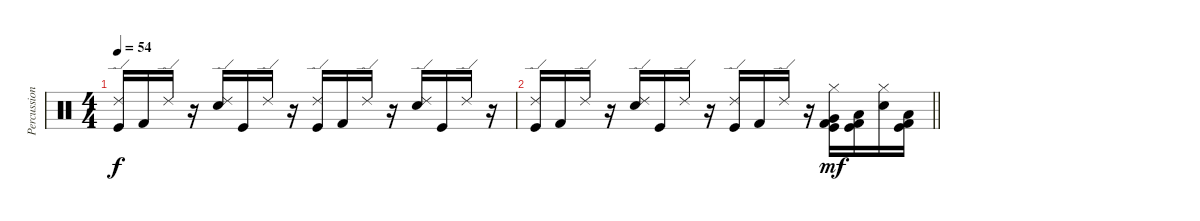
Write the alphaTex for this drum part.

\track ("Percussion" "Percussion") {instrument percussion}
\staff {score}
\articulation defaults
\ts (4 4)
\tempo 54
\clef neutral
\ks c
("Ride (edge) 2" "Kick (hit)").16{dy f} "Kick (hit) 2".16 "Ride (edge) 2".16 r.16 ("Ride (edge) 2" "Snare (hit) 2").16 "Kick (hit)".16 "Ride (edge) 2".16 r.16 ("Ride (edge) 2" "Kick (hit)").16 "Kick (hit) 2".16 "Ride (edge) 2".16 r.16 ("Ride (edge) 2" "Snare (hit) 2").16 "Kick (hit)".16 "Ride (edge) 2".16 r.16 |
\barLineRight lightlight
("Ride (edge) 2" "Kick (hit)").16 "Kick (hit) 2".16 "Ride (edge) 2".16 r.16 ("Ride (edge) 2" "Snare (hit) 2").16 "Kick (hit)".16 "Ride (edge) 2".16 r.16 ("Ride (edge) 2" "Kick (hit)").16 "Kick (hit) 2".16 "Ride (edge) 2".16 r.16 ("Hi-Hat (closed)" "Very Low Tom (hit)" "Kick (hit)" "Kick (hit) 2").16{dy mf} ("Low Tom (hit)" "Kick (hit)" "Kick (hit) 2").16 ("Hi-Hat (closed)" "Electric Snare (hit)").16 ("Low Tom (hit)" "Kick (hit)" "Kick (hit) 2").16
